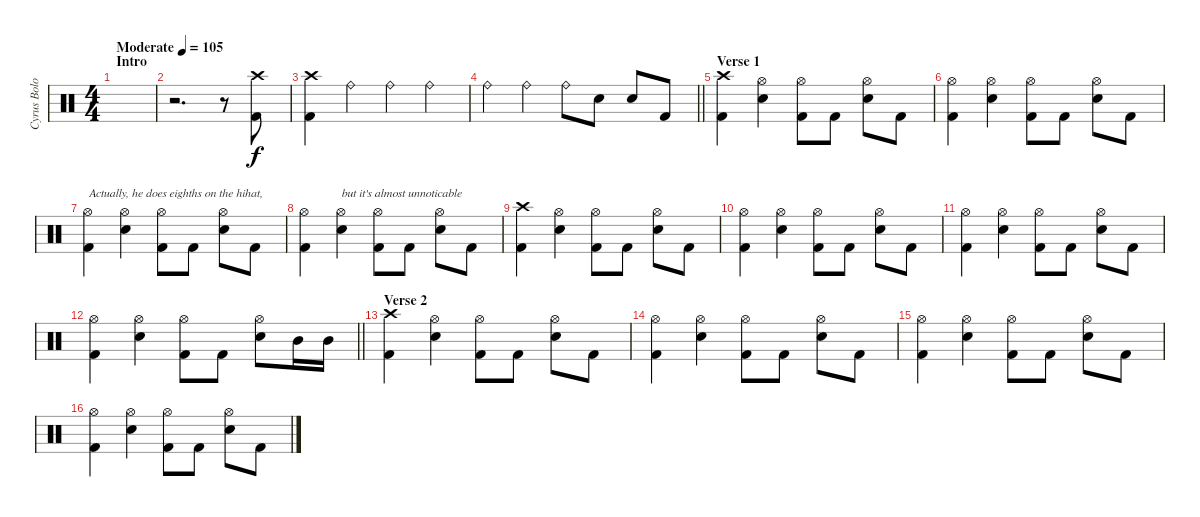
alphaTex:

\track ("Cyrus Bolooki" "Cyrus Bolo") {instrument percussion}
\staff {score}
\articulation defaults
\ts (4 4)
\section ("" "Intro")
\tempo (105 "Moderate")
\clef neutral
\ks c
|
r.2{d} r.8 ("Crash high (hit)" "Kick (hit) 2").8 |
("Crash high (hit)" "Kick (hit) 2").4 "Ride (bell)".4 "Ride (bell)".4 "Ride (bell)".4 |
\barLineRight lightlight "Ride (bell)".4 "Ride (bell)".4 "Ride (bell)".8 "Electric Snare (hit)".8 "Electric Snare (hit)".8 "Kick (hit) 2".8
|
\section ("" "Verse 1")
("Crash high (hit)" "Kick (hit) 2").4 ("Hi-Hat (open)" "Electric Snare (hit)").4 ("Hi-Hat (open)" "Kick (hit) 2").8 "Kick (hit) 2".8 ("Hi-Hat (open)" "Electric Snare (hit)").8 "Kick (hit) 2".8 |
("Hi-Hat (open)" "Kick (hit) 2").4 ("Hi-Hat (open)" "Electric Snare (hit)").4 ("Hi-Hat (open)" "Kick (hit) 2").8 "Kick (hit) 2".8 ("Hi-Hat (open)" "Electric Snare (hit)").8 "Kick (hit) 2".8 |
("Hi-Hat (open)" "Kick (hit) 2").4{txt "Actually, he does eighths on the hihat,"} ("Hi-Hat (open)" "Electric Snare (hit)").4 ("Hi-Hat (open)" "Kick (hit) 2").8 "Kick (hit) 2".8 ("Hi-Hat (open)" "Electric Snare (hit)").8 "Kick (hit) 2".8 |
("Hi-Hat (open)" "Kick (hit) 2").4 ("Hi-Hat (open)" "Electric Snare (hit)").4{txt "but it's almost unnoticable"} ("Hi-Hat (open)" "Kick (hit) 2").8 "Kick (hit) 2".8 ("Hi-Hat (open)" "Electric Snare (hit)").8 "Kick (hit) 2".8 |
("Crash high (hit)" "Kick (hit) 2").4 ("Hi-Hat (open)" "Electric Snare (hit)").4 ("Hi-Hat (open)" "Kick (hit) 2").8 "Kick (hit) 2".8 ("Hi-Hat (open)" "Electric Snare (hit)").8 "Kick (hit) 2".8 |
("Hi-Hat (open)" "Kick (hit) 2").4 ("Hi-Hat (open)" "Electric Snare (hit)").4 ("Hi-Hat (open)" "Kick (hit) 2").8 "Kick (hit) 2".8 ("Hi-Hat (open)" "Electric Snare (hit)").8 "Kick (hit) 2".8 |
("Hi-Hat (open)" "Kick (hit) 2").4 ("Hi-Hat (open)" "Electric Snare (hit)").4 ("Hi-Hat (open)" "Kick (hit) 2").8 "Kick (hit) 2".8 ("Hi-Hat (open)" "Electric Snare (hit)").8 "Kick (hit) 2".8 |
\barLineRight lightlight
("Hi-Hat (open)" "Kick (hit) 2").4 ("Hi-Hat (open)" "Electric Snare (hit)").4 ("Hi-Hat (open)" "Kick (hit) 2").8 "Kick (hit) 2".8 ("Hi-Hat (open)" "Electric Snare (hit)").8 "Mid Tom (hit)".16 "Mid Tom (hit)".16 |
\section ("" "Verse 2")
("Crash high (hit)" "Kick (hit) 2").4 ("Hi-Hat (open)" "Electric Snare (hit)").4 ("Hi-Hat (open)" "Kick (hit) 2").8 "Kick (hit) 2".8 ("Hi-Hat (open)" "Electric Snare (hit)").8 "Kick (hit) 2".8 |
("Hi-Hat (open)" "Kick (hit) 2").4 ("Hi-Hat (open)" "Electric Snare (hit)").4 ("Hi-Hat (open)" "Kick (hit) 2").8 "Kick (hit) 2".8 ("Hi-Hat (open)" "Electric Snare (hit)").8 "Kick (hit) 2".8 |
("Hi-Hat (open)" "Kick (hit) 2").4 ("Hi-Hat (open)" "Electric Snare (hit)").4 ("Hi-Hat (open)" "Kick (hit) 2").8 "Kick (hit) 2".8 ("Hi-Hat (open)" "Electric Snare (hit)").8 "Kick (hit) 2".8 |
("Hi-Hat (open)" "Kick (hit) 2").4 ("Hi-Hat (open)" "Electric Snare (hit)").4 ("Hi-Hat (open)" "Kick (hit) 2").8 "Kick (hit) 2".8 ("Hi-Hat (open)" "Electric Snare (hit)").8 "Kick (hit) 2".8
